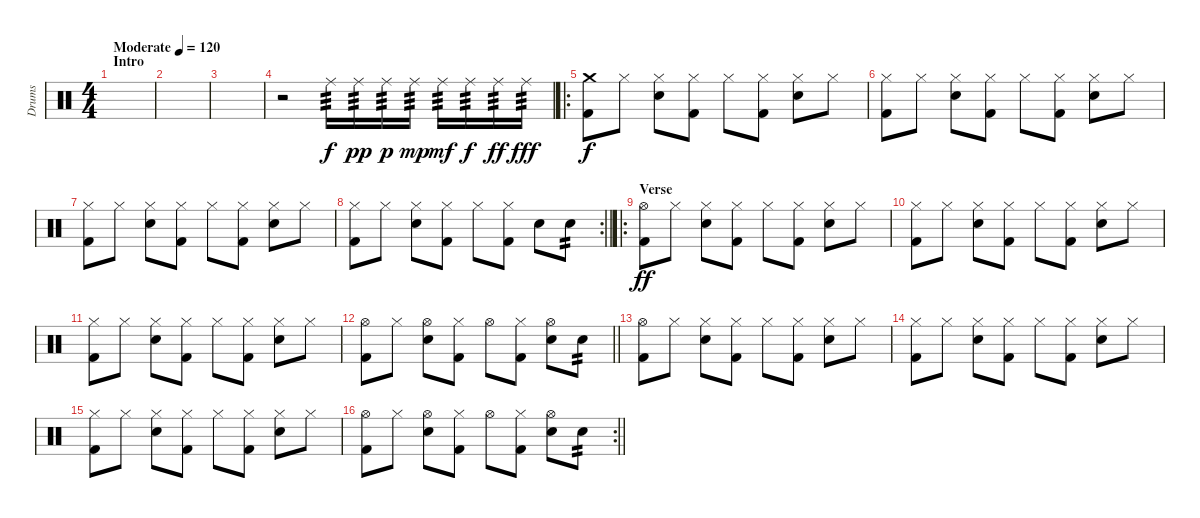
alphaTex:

\track ("Drums" "Drums") {instrument percussion}
\staff {score}
\articulation defaults
\ts (4 4)
\section ("" "Intro")
\tempo (120 "Moderate")
\clef neutral
\ks c
|
|
|
r.2 "Ride (middle)".16{tp 3} "Ride (middle)".16{tp 3 dy pp} "Ride (middle)".16{tp 3 dy p} "Ride (middle)".16{tp 3 dy mp} "Ride (middle)".16{tp 3 dy mf} "Ride (middle)".16{tp 3 dy f} "Ride (middle)".16{tp 3 dy ff} "Ride (middle)".16{tp 3 dy fff} |
\ro
("Crash medium (hit)" "Kick (hit) 2").8{dy f} "Hi-Hat (closed)".8 ("Hi-Hat (closed)" "Snare (hit) 2").8 ("Hi-Hat (closed)" "Kick (hit) 2").8 "Hi-Hat (closed)".8 ("Hi-Hat (closed)" "Kick (hit) 2").8 ("Hi-Hat (closed)" "Snare (hit) 2").8 "Hi-Hat (closed)".8 |
("Hi-Hat (closed)" "Kick (hit) 2").8 "Hi-Hat (closed)".8 ("Hi-Hat (closed)" "Snare (hit) 2").8 ("Hi-Hat (closed)" "Kick (hit) 2").8 "Hi-Hat (closed)".8 ("Hi-Hat (closed)" "Kick (hit) 2").8 ("Hi-Hat (closed)" "Snare (hit) 2").8 "Hi-Hat (closed)".8 |
("Hi-Hat (closed)" "Kick (hit) 2").8 "Hi-Hat (closed)".8 ("Hi-Hat (closed)" "Snare (hit) 2").8 ("Hi-Hat (closed)" "Kick (hit) 2").8 "Hi-Hat (closed)".8 ("Hi-Hat (closed)" "Kick (hit) 2").8 ("Hi-Hat (closed)" "Snare (hit) 2").8 "Hi-Hat (closed)".8 |
\rc 2
\barLineRight lightlight
("Hi-Hat (closed)" "Kick (hit) 2").8 "Hi-Hat (closed)".8 ("Hi-Hat (closed)" "Snare (hit) 2").8 ("Hi-Hat (closed)" "Kick (hit) 2").8 "Hi-Hat (closed)".8 ("Hi-Hat (closed)" "Kick (hit) 2").8 "Snare (hit) 2".8 "Snare (hit) 2".8{tp 2} |
\ro
\section ("" "Verse")
("Hi-Hat (open)" "Kick (hit) 2").8{dy ff} "Hi-Hat (closed)".8 ("Hi-Hat (closed)" "Snare (hit) 2").8 ("Hi-Hat (closed)" "Kick (hit) 2").8 "Hi-Hat (closed)".8 ("Hi-Hat (closed)" "Kick (hit) 2").8 ("Hi-Hat (closed)" "Snare (hit) 2").8 "Hi-Hat (closed)".8 |
("Hi-Hat (closed)" "Kick (hit) 2").8 "Hi-Hat (closed)".8 ("Hi-Hat (closed)" "Snare (hit) 2").8 ("Hi-Hat (closed)" "Kick (hit) 2").8 "Hi-Hat (closed)".8 ("Hi-Hat (closed)" "Kick (hit) 2").8 ("Hi-Hat (closed)" "Snare (hit) 2").8 "Hi-Hat (closed)".8 |
("Hi-Hat (closed)" "Kick (hit) 2").8 "Hi-Hat (closed)".8 ("Hi-Hat (closed)" "Snare (hit) 2").8 ("Hi-Hat (closed)" "Kick (hit) 2").8 "Hi-Hat (closed)".8 ("Hi-Hat (closed)" "Kick (hit) 2").8 ("Hi-Hat (closed)" "Snare (hit) 2").8 "Hi-Hat (closed)".8 |
\barLineRight lightlight
("Hi-Hat (open)" "Kick (hit) 2").8 "Hi-Hat (closed)".8 ("Hi-Hat (open)" "Snare (hit) 2").8 ("Hi-Hat (closed)" "Kick (hit) 2").8 "Hi-Hat (open)".8 ("Hi-Hat (closed)" "Kick (hit) 2").8 ("Hi-Hat (open)" "Snare (hit) 2").8 "Snare (hit) 2".8{tp 2} |
("Hi-Hat (open)" "Kick (hit) 2").8 "Hi-Hat (closed)".8 ("Hi-Hat (closed)" "Snare (hit) 2").8 ("Hi-Hat (closed)" "Kick (hit) 2").8 "Hi-Hat (closed)".8 ("Hi-Hat (closed)" "Kick (hit) 2").8 ("Hi-Hat (closed)" "Snare (hit) 2").8 "Hi-Hat (closed)".8 |
("Hi-Hat (closed)" "Kick (hit) 2").8 "Hi-Hat (closed)".8 ("Hi-Hat (closed)" "Snare (hit) 2").8 ("Hi-Hat (closed)" "Kick (hit) 2").8 "Hi-Hat (closed)".8 ("Hi-Hat (closed)" "Kick (hit) 2").8 ("Hi-Hat (closed)" "Snare (hit) 2").8 "Hi-Hat (closed)".8 |
("Hi-Hat (closed)" "Kick (hit) 2").8 "Hi-Hat (closed)".8 ("Hi-Hat (closed)" "Snare (hit) 2").8 ("Hi-Hat (closed)" "Kick (hit) 2").8 "Hi-Hat (closed)".8 ("Hi-Hat (closed)" "Kick (hit) 2").8 ("Hi-Hat (closed)" "Snare (hit) 2").8 "Hi-Hat (closed)".8 |
\rc 2
\barLineRight lightlight
("Hi-Hat (open)" "Kick (hit) 2").8 "Hi-Hat (closed)".8 ("Hi-Hat (open)" "Snare (hit) 2").8 ("Hi-Hat (closed)" "Kick (hit) 2").8 "Hi-Hat (open)".8 ("Hi-Hat (closed)" "Kick (hit) 2").8 ("Hi-Hat (open)" "Snare (hit) 2").8 "Snare (hit) 2".8{tp 2}
